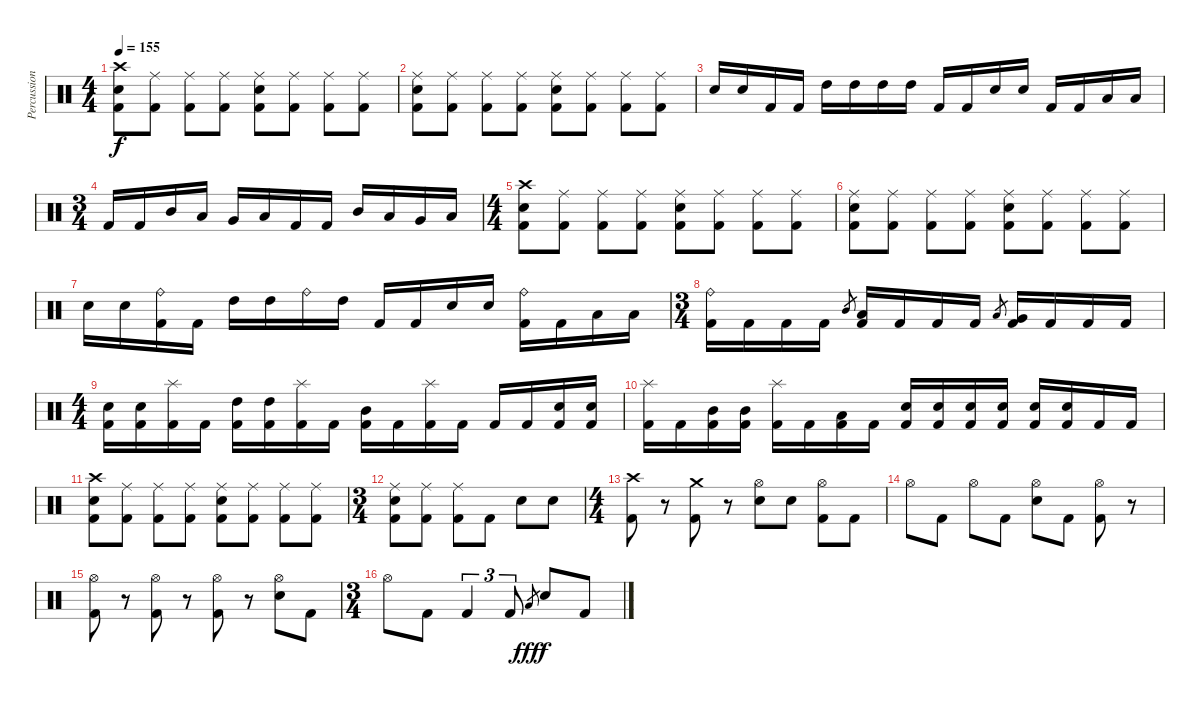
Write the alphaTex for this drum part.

\track ("Percussion" "Percussion") {instrument percussion}
\staff {score}
\articulation defaults
\ts (4 4)
\tempo 155
\clef neutral
\ks c
("Crash high (hit)" "Snare (hit) 2" "Kick (hit) 2").8{dy f} ("Ride (middle)" "Kick (hit) 2").8 ("Ride (middle)" "Kick (hit) 2").8 ("Ride (middle)" "Kick (hit) 2").8 ("Ride (middle)" "Snare (hit) 2" "Kick (hit) 2").8 ("Ride (middle)" "Kick (hit) 2").8 ("Ride (middle)" "Kick (hit) 2").8 ("Ride (middle)" "Kick (hit) 2").8 |
("Ride (middle)" "Snare (hit) 2" "Kick (hit) 2").8 ("Ride (middle)" "Kick (hit) 2").8 ("Ride (middle)" "Kick (hit) 2").8 ("Ride (middle)" "Kick (hit) 2").8 ("Ride (middle)" "Snare (hit) 2" "Kick (hit) 2").8 ("Ride (middle)" "Kick (hit) 2").8 ("Ride (middle)" "Kick (hit) 2").8 ("Ride (middle)" "Kick (hit) 2").8 |
"Snare (hit) 2".16 "Snare (hit) 2".16 "Kick (hit) 2".16 "Kick (hit) 2".16 "High Tom (hit)".16 "High Tom (hit)".16 "High Tom (hit)".16 "High Tom (hit)".16 "Kick (hit) 2".16 "Kick (hit) 2".16 "Snare (hit) 2".16 "Snare (hit) 2".16 "Kick (hit) 2".16 "Kick (hit) 2".16 "Low Tom (hit)".16 "Low Tom (hit)".16 |
\ts (3 4)
"Kick (hit) 2".16 "Kick (hit) 2".16 "Mid Tom (hit)".16 "Low Tom (hit)".16 "Very Low Tom (hit)".16 "Low Floor Tom (hit)".16 "Kick (hit) 2".16 "Kick (hit) 2".16 "Mid Tom (hit)".16 "Low Tom (hit)".16 "Very Low Tom (hit)".16 "Low Floor Tom (hit)".16 |
\ts (4 4)
("Crash high (hit)" "Snare (hit) 2" "Kick (hit) 2").8 ("Ride (middle)" "Kick (hit) 2").8 ("Ride (middle)" "Kick (hit) 2").8 ("Ride (middle)" "Kick (hit) 2").8 ("Ride (middle)" "Snare (hit) 2" "Kick (hit) 2").8 ("Ride (middle)" "Kick (hit) 2").8 ("Ride (middle)" "Kick (hit) 2").8 ("Ride (middle)" "Kick (hit) 2").8 |
("Ride (middle)" "Snare (hit) 2" "Kick (hit) 2").8 ("Ride (middle)" "Kick (hit) 2").8 ("Ride (middle)" "Kick (hit) 2").8 ("Ride (middle)" "Kick (hit) 2").8 ("Ride (middle)" "Snare (hit) 2" "Kick (hit) 2").8 ("Ride (middle)" "Kick (hit) 2").8 ("Ride (middle)" "Kick (hit) 2").8 ("Ride (middle)" "Kick (hit) 2").8 |
"Snare (hit) 2".16 "Snare (hit) 2".16 ("Ride (bell)" "Kick (hit) 2").16 "Kick (hit) 2".16 "High Tom (hit)".16 "High Tom (hit)".16 "Ride (bell)".16 "High Tom (hit)".16 "Kick (hit) 2".16 "Kick (hit) 2".16 "Snare (hit) 2".16 "Snare (hit) 2".16 ("Ride (bell)" "Kick (hit) 2").16 "Kick (hit) 2".16 "Low Tom (hit)".16 "Low Tom (hit)".16 |
\ts (3 4)
("Ride (bell)" "Kick (hit) 2").16 "Kick (hit) 2".16 "Kick (hit) 2".16 "Kick (hit) 2".16 "Mid Tom (hit)".8{gr} ("Low Tom (hit)" "Kick (hit) 2").16 "Kick (hit) 2".16 "Kick (hit) 2".16 "Kick (hit) 2".16 "Low Tom (hit)".8{gr} ("Very Low Tom (hit)" "Kick (hit) 2").16 "Kick (hit) 2".16 "Kick (hit) 2".16 "Kick (hit) 2".16 |
\ts (4 4)
("Snare (hit) 2" "Kick (hit) 2").16 ("Snare (hit) 2" "Kick (hit) 2").16 ("Splash (hit)" "Kick (hit) 2").16 "Kick (hit) 2".16 ("High Tom (hit)" "Kick (hit) 2").16 ("High Tom (hit)" "Kick (hit) 2").16 ("Splash (hit)" "Kick (hit) 2").16 "Kick (hit) 2".16 ("Mid Tom (hit)" "Kick (hit) 2").16 "Kick (hit) 2".16 ("Splash (hit)" "Kick (hit) 2").16 "Kick (hit) 2".16 "Kick (hit) 2".16 "Kick (hit) 2".16 ("Snare (hit) 2" "Kick (hit) 2").16 ("Snare (hit) 2" "Kick (hit) 2").16 |
("Splash (hit)" "Kick (hit) 2").16 "Kick (hit) 2".16 ("Mid Tom (hit)" "Kick (hit) 2").16 ("Mid Tom (hit)" "Kick (hit) 2").16 ("Splash (hit)" "Kick (hit) 2").16 "Kick (hit) 2".16 ("Low Tom (hit)" "Kick (hit) 2").16 "Kick (hit) 2".16 ("Snare (hit) 2" "Kick (hit) 2").16 ("Snare (hit) 2" "Kick (hit) 2").16 ("Snare (hit) 2" "Kick (hit) 2").16 ("Snare (hit) 2" "Kick (hit) 2").16 ("Snare (hit) 2" "Kick (hit) 2").16 ("Snare (hit) 2" "Kick (hit) 2").16 "Kick (hit) 2".16 "Kick (hit) 2".16 |
("Crash high (hit)" "Snare (hit) 2" "Kick (hit) 2").8 ("Ride (middle)" "Kick (hit) 2").8 ("Ride (middle)" "Kick (hit) 2").8 ("Ride (middle)" "Kick (hit) 2").8 ("Ride (middle)" "Snare (hit) 2" "Kick (hit) 2").8 ("Ride (middle)" "Kick (hit) 2").8 ("Ride (middle)" "Kick (hit) 2").8 ("Ride (middle)" "Kick (hit) 2").8 |
\ts (3 4)
("Ride (middle)" "Snare (hit) 2" "Kick (hit) 2").8 ("Ride (middle)" "Kick (hit) 2").8 ("Ride (middle)" "Kick (hit) 2").8 "Kick (hit) 2".8 "Snare (hit) 2".8 "Snare (hit) 2".8 |
\ts (4 4)
("Crash high (hit)" "Kick (hit) 2").8 r.8 ("Crash medium (hit)" "Kick (hit) 2").8 r.8 ("Hi-Hat (open)" "Snare (hit) 2").8 "Snare (hit) 2".8 ("Hi-Hat (open)" "Kick (hit) 2").8 "Kick (hit) 2".8 |
"Hi-Hat (open)".8 "Kick (hit) 2".8 "Hi-Hat (open)".8 "Kick (hit) 2".8 ("Hi-Hat (open)" "Snare (hit) 2").8 "Kick (hit) 2".8 ("Hi-Hat (open)" "Kick (hit) 2").8 r.8 |
("Hi-Hat (open)" "Kick (hit) 2").8 r.8 ("Hi-Hat (open)" "Kick (hit) 2").8 r.8 ("Hi-Hat (open)" "Kick (hit) 2").8 r.8 ("Hi-Hat (open)" "Snare (hit) 2").8 "Kick (hit) 2".8 |
\ts (3 4)
"Hi-Hat (open)".8 "Kick (hit) 2".8 "Kick (hit) 2".4{tu (3 2)} "Kick (hit) 2".8{tu (3 2)} "Low Floor Tom (hit)".8{gr dy fff} "Snare (hit) 2".8{dy f} "Kick (hit) 2".8
